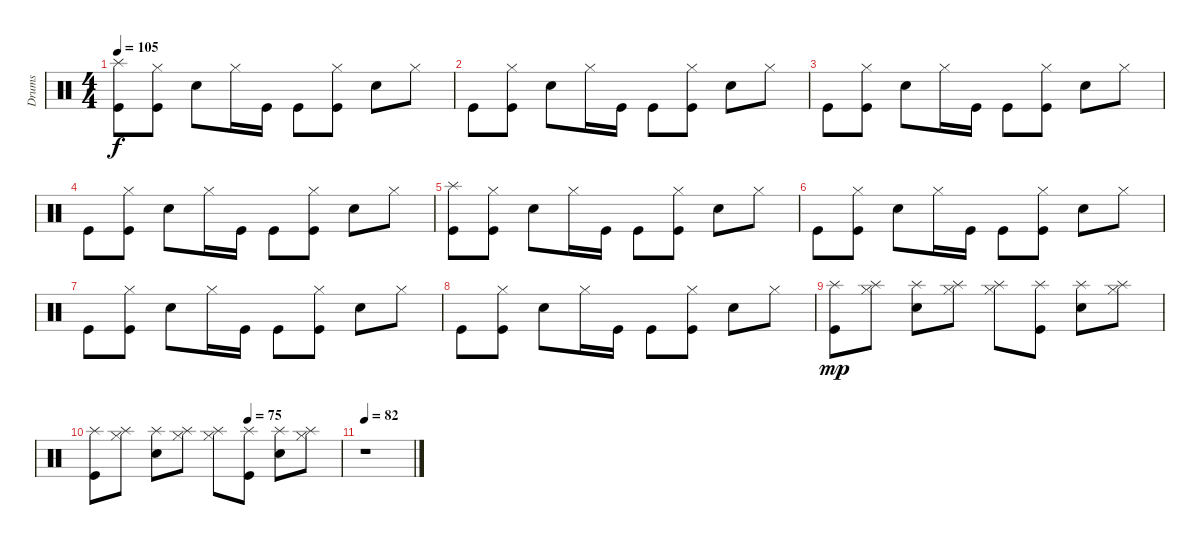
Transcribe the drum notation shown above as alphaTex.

\track ("Drums" "Drums") {instrument percussion}
\staff {score}
\articulation defaults
\ts (4 4)
\tempo 105
\clef neutral
\ks c
("Kick (hit)" "Splash (hit)").8{dy f} ("Kick (hit)" "Hi-Hat (closed)").8 "Electric Snare (hit)".8 "Hi-Hat (closed)".16 "Kick (hit)".16 "Kick (hit)".8 ("Kick (hit)" "Hi-Hat (closed)").8 "Electric Snare (hit)".8 "Hi-Hat (closed)".8 |
"Kick (hit)".8 ("Kick (hit)" "Hi-Hat (closed)").8 "Electric Snare (hit)".8 "Hi-Hat (closed)".16 "Kick (hit)".16 "Kick (hit)".8 ("Kick (hit)" "Hi-Hat (closed)").8 "Electric Snare (hit)".8 "Hi-Hat (closed)".8 |
"Kick (hit)".8 ("Kick (hit)" "Hi-Hat (closed)").8 "Electric Snare (hit)".8 "Hi-Hat (closed)".16 "Kick (hit)".16 "Kick (hit)".8 ("Kick (hit)" "Hi-Hat (closed)").8 "Electric Snare (hit)".8 "Hi-Hat (closed)".8 |
"Kick (hit)".8 ("Kick (hit)" "Hi-Hat (closed)").8 "Electric Snare (hit)".8 "Hi-Hat (closed)".16 "Kick (hit)".16 "Kick (hit)".8 ("Kick (hit)" "Hi-Hat (closed)").8 "Electric Snare (hit)".8 "Hi-Hat (closed)".8 |
("Kick (hit)" "Splash (hit)").8 ("Kick (hit)" "Hi-Hat (closed)").8 "Electric Snare (hit)".8 "Hi-Hat (closed)".16 "Kick (hit)".16 "Kick (hit)".8 ("Kick (hit)" "Hi-Hat (closed)").8 "Electric Snare (hit)".8 "Hi-Hat (closed)".8 |
"Kick (hit)".8 ("Kick (hit)" "Hi-Hat (closed)").8 "Electric Snare (hit)".8 "Hi-Hat (closed)".16 "Kick (hit)".16 "Kick (hit)".8 ("Kick (hit)" "Hi-Hat (closed)").8 "Electric Snare (hit)".8 "Hi-Hat (closed)".8 |
"Kick (hit)".8 ("Kick (hit)" "Hi-Hat (closed)").8 "Electric Snare (hit)".8 "Hi-Hat (closed)".16 "Kick (hit)".16 "Kick (hit)".8 ("Kick (hit)" "Hi-Hat (closed)").8 "Electric Snare (hit)".8 "Hi-Hat (closed)".8 |
"Kick (hit)".8 ("Kick (hit)" "Hi-Hat (closed)").8 "Electric Snare (hit)".8 "Hi-Hat (closed)".16 "Kick (hit)".16 "Kick (hit)".8 ("Kick (hit)" "Hi-Hat (closed)").8 "Electric Snare (hit)".8 "Hi-Hat (closed)".8 |
("Kick (hit)" "Splash (hit)").8{dy mp} ("Hi-Hat (closed)" "Splash (hit)").8 ("Electric Snare (hit)" "Splash (hit)").8 ("Hi-Hat (closed)" "Splash (hit)").8 ("Hi-Hat (closed)" "Splash (hit)").8 ("Kick (hit)" "Splash (hit)").8 ("Electric Snare (hit)" "Splash (hit)").8 ("Hi-Hat (closed)" "Splash (hit)").8 |
\tempo (75 0.625)
("Kick (hit)" "Splash (hit)").8 ("Hi-Hat (closed)" "Splash (hit)").8 ("Electric Snare (hit)" "Splash (hit)").8 ("Hi-Hat (closed)" "Splash (hit)").8 ("Hi-Hat (closed)" "Splash (hit)").8 ("Kick (hit)" "Splash (hit)").8 ("Electric Snare (hit)" "Splash (hit)").8 ("Hi-Hat (closed)" "Splash (hit)").8 |
\tempo 82
r.1
